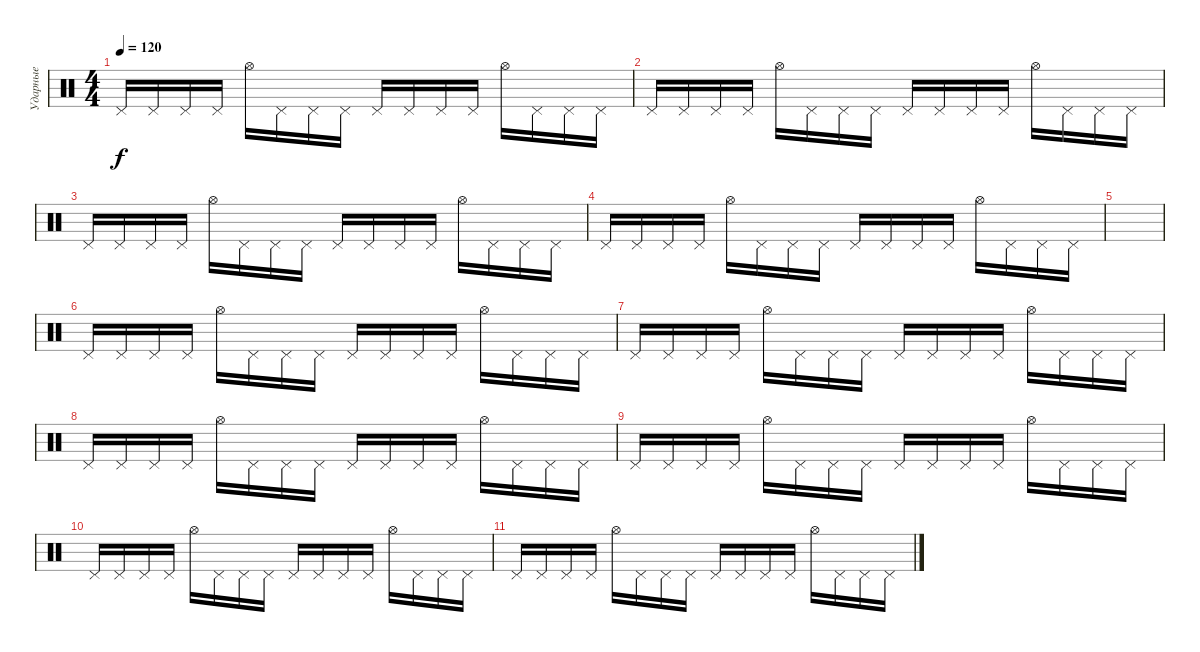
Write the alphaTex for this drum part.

\track ("Ударные" "Ударные") {instrument percussion}
\staff {score}
\articulation defaults
\ts (4 4)
\tempo 120
\clef neutral
\ks c "Pedal Hi-Hat (hit)".16{dy f} "Pedal Hi-Hat (hit)".16 "Pedal Hi-Hat (hit)".16 "Pedal Hi-Hat (hit)".16 "Hi-Hat (open)".16 "Pedal Hi-Hat (hit)".16 "Pedal Hi-Hat (hit)".16 "Pedal Hi-Hat (hit)".16 "Pedal Hi-Hat (hit)".16 "Pedal Hi-Hat (hit)".16 "Pedal Hi-Hat (hit)".16 "Pedal Hi-Hat (hit)".16 "Hi-Hat (open)".16 "Pedal Hi-Hat (hit)".16 "Pedal Hi-Hat (hit)".16 "Pedal Hi-Hat (hit)".16
|
"Pedal Hi-Hat (hit)".16 "Pedal Hi-Hat (hit)".16 "Pedal Hi-Hat (hit)".16 "Pedal Hi-Hat (hit)".16 "Hi-Hat (open)".16 "Pedal Hi-Hat (hit)".16 "Pedal Hi-Hat (hit)".16 "Pedal Hi-Hat (hit)".16 "Pedal Hi-Hat (hit)".16 "Pedal Hi-Hat (hit)".16 "Pedal Hi-Hat (hit)".16 "Pedal Hi-Hat (hit)".16 "Hi-Hat (open)".16 "Pedal Hi-Hat (hit)".16 "Pedal Hi-Hat (hit)".16 "Pedal Hi-Hat (hit)".16 |
"Pedal Hi-Hat (hit)".16 "Pedal Hi-Hat (hit)".16 "Pedal Hi-Hat (hit)".16 "Pedal Hi-Hat (hit)".16 "Hi-Hat (open)".16 "Pedal Hi-Hat (hit)".16 "Pedal Hi-Hat (hit)".16 "Pedal Hi-Hat (hit)".16 "Pedal Hi-Hat (hit)".16 "Pedal Hi-Hat (hit)".16 "Pedal Hi-Hat (hit)".16 "Pedal Hi-Hat (hit)".16 "Hi-Hat (open)".16 "Pedal Hi-Hat (hit)".16 "Pedal Hi-Hat (hit)".16 "Pedal Hi-Hat (hit)".16 |
"Pedal Hi-Hat (hit)".16 "Pedal Hi-Hat (hit)".16 "Pedal Hi-Hat (hit)".16 "Pedal Hi-Hat (hit)".16 "Hi-Hat (open)".16 "Pedal Hi-Hat (hit)".16 "Pedal Hi-Hat (hit)".16 "Pedal Hi-Hat (hit)".16 "Pedal Hi-Hat (hit)".16 "Pedal Hi-Hat (hit)".16 "Pedal Hi-Hat (hit)".16 "Pedal Hi-Hat (hit)".16 "Hi-Hat (open)".16 "Pedal Hi-Hat (hit)".16 "Pedal Hi-Hat (hit)".16 "Pedal Hi-Hat (hit)".16 |
|
"Pedal Hi-Hat (hit)".16 "Pedal Hi-Hat (hit)".16 "Pedal Hi-Hat (hit)".16 "Pedal Hi-Hat (hit)".16 "Hi-Hat (open)".16 "Pedal Hi-Hat (hit)".16 "Pedal Hi-Hat (hit)".16 "Pedal Hi-Hat (hit)".16 "Pedal Hi-Hat (hit)".16 "Pedal Hi-Hat (hit)".16 "Pedal Hi-Hat (hit)".16 "Pedal Hi-Hat (hit)".16 "Hi-Hat (open)".16 "Pedal Hi-Hat (hit)".16 "Pedal Hi-Hat (hit)".16 "Pedal Hi-Hat (hit)".16 |
"Pedal Hi-Hat (hit)".16 "Pedal Hi-Hat (hit)".16 "Pedal Hi-Hat (hit)".16 "Pedal Hi-Hat (hit)".16 "Hi-Hat (open)".16 "Pedal Hi-Hat (hit)".16 "Pedal Hi-Hat (hit)".16 "Pedal Hi-Hat (hit)".16 "Pedal Hi-Hat (hit)".16 "Pedal Hi-Hat (hit)".16 "Pedal Hi-Hat (hit)".16 "Pedal Hi-Hat (hit)".16 "Hi-Hat (open)".16 "Pedal Hi-Hat (hit)".16 "Pedal Hi-Hat (hit)".16 "Pedal Hi-Hat (hit)".16 |
"Pedal Hi-Hat (hit)".16 "Pedal Hi-Hat (hit)".16 "Pedal Hi-Hat (hit)".16 "Pedal Hi-Hat (hit)".16 "Hi-Hat (open)".16 "Pedal Hi-Hat (hit)".16 "Pedal Hi-Hat (hit)".16 "Pedal Hi-Hat (hit)".16 "Pedal Hi-Hat (hit)".16 "Pedal Hi-Hat (hit)".16 "Pedal Hi-Hat (hit)".16 "Pedal Hi-Hat (hit)".16 "Hi-Hat (open)".16 "Pedal Hi-Hat (hit)".16 "Pedal Hi-Hat (hit)".16 "Pedal Hi-Hat (hit)".16 |
"Pedal Hi-Hat (hit)".16 "Pedal Hi-Hat (hit)".16 "Pedal Hi-Hat (hit)".16 "Pedal Hi-Hat (hit)".16 "Hi-Hat (open)".16 "Pedal Hi-Hat (hit)".16 "Pedal Hi-Hat (hit)".16 "Pedal Hi-Hat (hit)".16 "Pedal Hi-Hat (hit)".16 "Pedal Hi-Hat (hit)".16 "Pedal Hi-Hat (hit)".16 "Pedal Hi-Hat (hit)".16 "Hi-Hat (open)".16 "Pedal Hi-Hat (hit)".16 "Pedal Hi-Hat (hit)".16 "Pedal Hi-Hat (hit)".16 |
"Pedal Hi-Hat (hit)".16 "Pedal Hi-Hat (hit)".16 "Pedal Hi-Hat (hit)".16 "Pedal Hi-Hat (hit)".16 "Hi-Hat (open)".16 "Pedal Hi-Hat (hit)".16 "Pedal Hi-Hat (hit)".16 "Pedal Hi-Hat (hit)".16 "Pedal Hi-Hat (hit)".16 "Pedal Hi-Hat (hit)".16 "Pedal Hi-Hat (hit)".16 "Pedal Hi-Hat (hit)".16 "Hi-Hat (open)".16 "Pedal Hi-Hat (hit)".16 "Pedal Hi-Hat (hit)".16 "Pedal Hi-Hat (hit)".16 |
"Pedal Hi-Hat (hit)".16 "Pedal Hi-Hat (hit)".16 "Pedal Hi-Hat (hit)".16 "Pedal Hi-Hat (hit)".16 "Hi-Hat (open)".16 "Pedal Hi-Hat (hit)".16 "Pedal Hi-Hat (hit)".16 "Pedal Hi-Hat (hit)".16 "Pedal Hi-Hat (hit)".16 "Pedal Hi-Hat (hit)".16 "Pedal Hi-Hat (hit)".16 "Pedal Hi-Hat (hit)".16 "Hi-Hat (open)".16 "Pedal Hi-Hat (hit)".16 "Pedal Hi-Hat (hit)".16 "Pedal Hi-Hat (hit)".16
